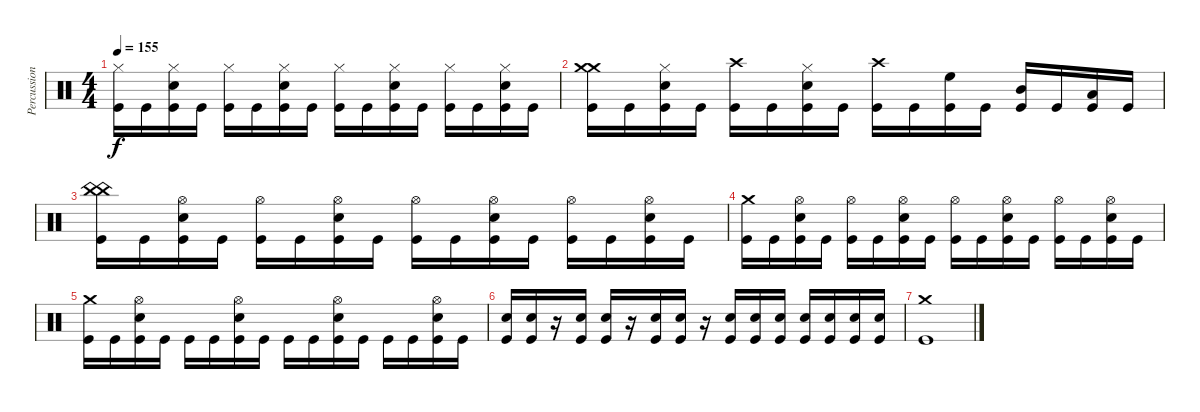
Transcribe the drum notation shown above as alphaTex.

\track ("Percussion" "Percussion") {instrument percussion}
\staff {score}
\articulation defaults
\ts (4 4)
\tempo 155
\clef neutral
\ks c
("Hi-Hat (closed)" "Kick (hit)").16{dy f} "Kick (hit)".16 ("Hi-Hat (closed)" "Electric Snare (hit)" "Kick (hit)").16 "Kick (hit)".16 ("Hi-Hat (closed)" "Kick (hit)").16 "Kick (hit)".16 ("Hi-Hat (closed)" "Electric Snare (hit)" "Kick (hit)").16 "Kick (hit)".16 ("Hi-Hat (closed)" "Kick (hit)").16 "Kick (hit)".16 ("Hi-Hat (closed)" "Electric Snare (hit)" "Kick (hit)").16 "Kick (hit)".16 ("Hi-Hat (closed)" "Kick (hit)").16 "Kick (hit)".16 ("Hi-Hat (closed)" "Electric Snare (hit)" "Kick (hit)").16 "Kick (hit)".16 |
("Crash medium (hit)" "Crash medium (hit)" "Kick (hit)").16 "Kick (hit)".16 ("Hi-Hat (closed)" "Electric Snare (hit)" "Kick (hit)").16 "Kick (hit)".16 ("Crash high (hit)" "Kick (hit)").16 "Kick (hit)".16 ("Hi-Hat (closed)" "Electric Snare (hit)" "Kick (hit)").16 "Kick (hit)".16 ("Crash high (hit)" "Kick (hit)").16 "Kick (hit)".16 ("High Floor Tom (hit)" "Kick (hit)").16 "Kick (hit)".16 ("Mid Tom (hit)" "Kick (hit)").16 "Kick (hit)".16 ("Low Tom (hit)" "Kick (hit)").16 "Kick (hit)".16 |
("China (hit)" "China (hit)" "Kick (hit)").16 "Kick (hit)".16 ("Hi-Hat (open)" "Electric Snare (hit)" "Kick (hit)").16 "Kick (hit)".16 ("Hi-Hat (open)" "Kick (hit)").16 "Kick (hit)".16 ("Hi-Hat (open)" "Electric Snare (hit)" "Kick (hit)").16 "Kick (hit)".16 ("Hi-Hat (open)" "Kick (hit)").16 "Kick (hit)".16 ("Hi-Hat (open)" "Electric Snare (hit)" "Kick (hit)").16 "Kick (hit)".16 ("Hi-Hat (open)" "Kick (hit)").16 "Kick (hit)".16 ("Hi-Hat (open)" "Electric Snare (hit)" "Kick (hit)").16 "Kick (hit)".16 |
("Crash medium (hit)" "Kick (hit)").16 "Kick (hit)".16 ("Hi-Hat (open)" "Electric Snare (hit)" "Kick (hit)").16 "Kick (hit)".16 ("Hi-Hat (open)" "Kick (hit)").16 "Kick (hit)".16 ("Hi-Hat (open)" "Electric Snare (hit)" "Kick (hit)").16 "Kick (hit)".16 ("Hi-Hat (open)" "Kick (hit)").16 "Kick (hit)".16 ("Hi-Hat (open)" "Electric Snare (hit)" "Kick (hit)").16 "Kick (hit)".16 ("Hi-Hat (open)" "Kick (hit)").16 "Kick (hit)".16 ("Hi-Hat (open)" "Electric Snare (hit)" "Kick (hit)").16 "Kick (hit)".16 |
("Crash medium (hit)" "Kick (hit)").16 "Kick (hit)".16 ("Hi-Hat (open)" "Electric Snare (hit)" "Kick (hit)").16 "Kick (hit)".16 "Kick (hit)".16 "Kick (hit)".16 ("Hi-Hat (open)" "Electric Snare (hit)" "Kick (hit)").16 "Kick (hit)".16 "Kick (hit)".16 "Kick (hit)".16 ("Hi-Hat (open)" "Electric Snare (hit)" "Kick (hit)").16 "Kick (hit)".16 "Kick (hit)".16 "Kick (hit)".16 ("Hi-Hat (open)" "Electric Snare (hit)" "Kick (hit)").16 "Kick (hit)".16 |
("Electric Snare (hit)" "Kick (hit)").16 ("Electric Snare (hit)" "Kick (hit)").16 r.16 ("Electric Snare (hit)" "Kick (hit)").16 ("Electric Snare (hit)" "Kick (hit)").16 r.16 ("Electric Snare (hit)" "Kick (hit)").16 ("Electric Snare (hit)" "Kick (hit)").16 r.16 ("Electric Snare (hit)" "Kick (hit)").16 ("Electric Snare (hit)" "Kick (hit)").16 ("Electric Snare (hit)" "Kick (hit)").16 ("Electric Snare (hit)" "Kick (hit)").16 ("Electric Snare (hit)" "Kick (hit)").16 ("Electric Snare (hit)" "Kick (hit)").16 ("Electric Snare (hit)" "Kick (hit)").16 |
("Crash medium (hit)" "Kick (hit)").1
